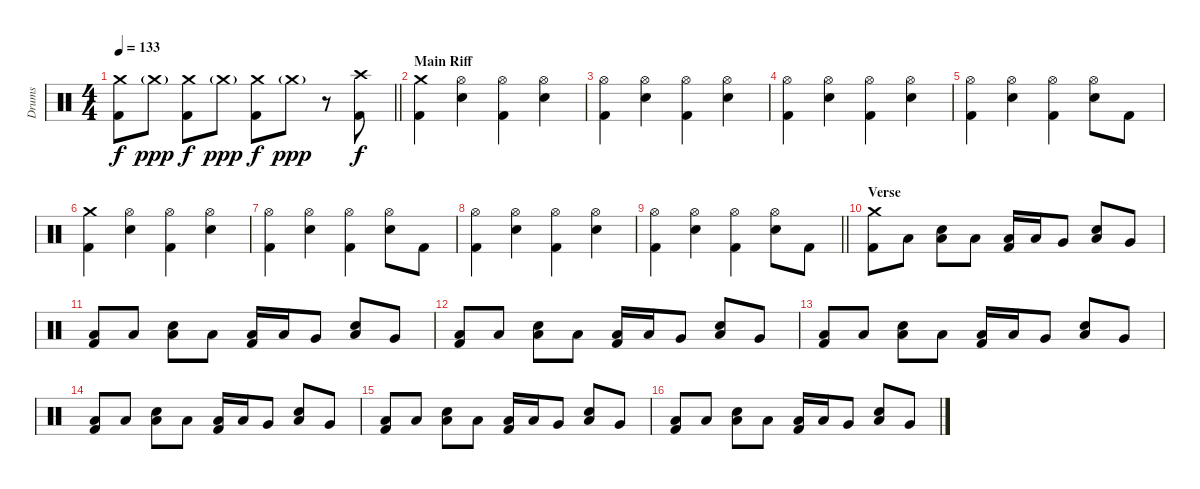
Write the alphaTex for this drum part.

\track ("Drums" "Drums") {instrument percussion}
\staff {score}
\articulation defaults
\ts (4 4)
\tempo 133
\clef neutral
\barLineRight lightlight
\ks c
("Crash medium (hit)" "Kick (hit) 2").8{dy f} "Crash medium (hit)"{g}.8{dy ppp} ("Crash medium (hit)" "Kick (hit) 2").8{dy f} "Crash medium (hit)"{g}.8{dy ppp} ("Crash medium (hit)" "Kick (hit) 2").8{dy f} "Crash medium (hit)"{g}.8{dy ppp} r.8 ("Crash high (hit)" "Kick (hit) 2").8{dy f} |
\section ("" "Main Riff")
("Crash medium (hit)" "Kick (hit) 2").4 ("Hi-Hat (open)" "Snare (hit) 2").4 ("Hi-Hat (open)" "Kick (hit) 2").4 ("Hi-Hat (open)" "Snare (hit) 2").4 |
("Hi-Hat (open)" "Kick (hit) 2").4 ("Hi-Hat (open)" "Snare (hit) 2").4 ("Hi-Hat (open)" "Kick (hit) 2").4 ("Hi-Hat (open)" "Snare (hit) 2").4 |
("Hi-Hat (open)" "Kick (hit) 2").4 ("Hi-Hat (open)" "Snare (hit) 2").4 ("Hi-Hat (open)" "Kick (hit) 2").4 ("Hi-Hat (open)" "Snare (hit) 2").4 |
("Hi-Hat (open)" "Kick (hit) 2").4 ("Hi-Hat (open)" "Snare (hit) 2").4 ("Hi-Hat (open)" "Kick (hit) 2").4 ("Hi-Hat (open)" "Snare (hit) 2").8 "Kick (hit) 2".8 |
("Crash medium (hit)" "Kick (hit) 2").4 ("Hi-Hat (open)" "Snare (hit) 2").4 ("Hi-Hat (open)" "Kick (hit) 2").4 ("Hi-Hat (open)" "Snare (hit) 2").4 |
("Hi-Hat (open)" "Kick (hit) 2").4 ("Hi-Hat (open)" "Snare (hit) 2").4 ("Hi-Hat (open)" "Kick (hit) 2").4 ("Hi-Hat (open)" "Snare (hit) 2").8 "Kick (hit) 2".8 |
("Hi-Hat (open)" "Kick (hit) 2").4 ("Hi-Hat (open)" "Snare (hit) 2").4 ("Hi-Hat (open)" "Kick (hit) 2").4 ("Hi-Hat (open)" "Snare (hit) 2").4 |
\barLineRight lightlight
("Hi-Hat (open)" "Kick (hit) 2").4 ("Hi-Hat (open)" "Snare (hit) 2").4 ("Hi-Hat (open)" "Kick (hit) 2").4 ("Hi-Hat (open)" "Snare (hit) 2").8 "Kick (hit) 2".8 |
\section ("" "Verse")
("Crash medium (hit)" "Kick (hit) 2").8 "Low Floor Tom (hit)".8 ("Low Floor Tom (hit)" "Snare (hit) 2").8 "Low Floor Tom (hit)".8 ("Low Floor Tom (hit)" "Kick (hit) 2").16 "Low Tom (hit)".16 "Very Low Tom (hit)".8 ("Low Floor Tom (hit)" "Snare (hit) 2").8 "Very Low Tom (hit)".8 |
("Low Floor Tom (hit)" "Kick (hit) 2").8 "Low Floor Tom (hit)".8 ("Low Floor Tom (hit)" "Snare (hit) 2").8 "Low Floor Tom (hit)".8 ("Low Floor Tom (hit)" "Kick (hit) 2").16 "Low Tom (hit)".16 "Very Low Tom (hit)".8 ("Low Floor Tom (hit)" "Snare (hit) 2").8 "Very Low Tom (hit)".8 |
("Low Floor Tom (hit)" "Kick (hit) 2").8 "Low Floor Tom (hit)".8 ("Low Floor Tom (hit)" "Snare (hit) 2").8 "Low Floor Tom (hit)".8 ("Low Floor Tom (hit)" "Kick (hit) 2").16 "Low Tom (hit)".16 "Very Low Tom (hit)".8 ("Low Floor Tom (hit)" "Snare (hit) 2").8 "Very Low Tom (hit)".8 |
("Low Floor Tom (hit)" "Kick (hit) 2").8 "Low Floor Tom (hit)".8 ("Low Floor Tom (hit)" "Snare (hit) 2").8 "Low Floor Tom (hit)".8 ("Low Floor Tom (hit)" "Kick (hit) 2").16 "Low Tom (hit)".16 "Very Low Tom (hit)".8 ("Low Floor Tom (hit)" "Snare (hit) 2").8 "Very Low Tom (hit)".8 |
("Low Floor Tom (hit)" "Kick (hit) 2").8 "Low Floor Tom (hit)".8 ("Low Floor Tom (hit)" "Snare (hit) 2").8 "Low Floor Tom (hit)".8 ("Low Floor Tom (hit)" "Kick (hit) 2").16 "Low Tom (hit)".16 "Very Low Tom (hit)".8 ("Low Floor Tom (hit)" "Snare (hit) 2").8 "Very Low Tom (hit)".8 |
("Low Floor Tom (hit)" "Kick (hit) 2").8 "Low Floor Tom (hit)".8 ("Low Floor Tom (hit)" "Snare (hit) 2").8 "Low Floor Tom (hit)".8 ("Low Floor Tom (hit)" "Kick (hit) 2").16 "Low Tom (hit)".16 "Very Low Tom (hit)".8 ("Low Floor Tom (hit)" "Snare (hit) 2").8 "Very Low Tom (hit)".8 |
("Low Floor Tom (hit)" "Kick (hit) 2").8 "Low Floor Tom (hit)".8 ("Low Floor Tom (hit)" "Snare (hit) 2").8 "Low Floor Tom (hit)".8 ("Low Floor Tom (hit)" "Kick (hit) 2").16 "Low Tom (hit)".16 "Very Low Tom (hit)".8 ("Low Floor Tom (hit)" "Snare (hit) 2").8 "Very Low Tom (hit)".8
